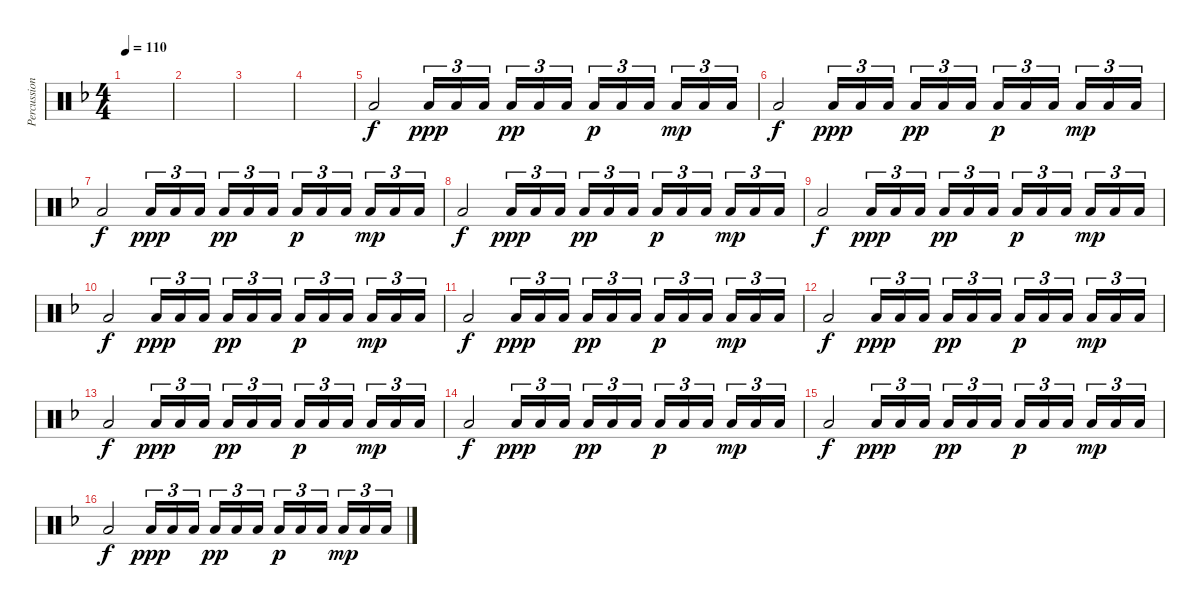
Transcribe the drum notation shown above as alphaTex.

\track ("Percussion" "Percussion") {instrument percussion}
\staff {score}
\articulation defaults
\ts (4 4)
\tempo 110
\clef neutral
\ks dminor
|
|
|
|
"Low Floor Tom (hit)".2 "Low Floor Tom (hit)".16{tu (3 2) dy ppp} "Low Floor Tom (hit)".16{tu (3 2)} "Low Floor Tom (hit)".16{tu (3 2)} "Low Floor Tom (hit)".16{tu (3 2) dy pp} "Low Floor Tom (hit)".16{tu (3 2)} "Low Floor Tom (hit)".16{tu (3 2)} "Low Floor Tom (hit)".16{tu (3 2) dy p} "Low Floor Tom (hit)".16{tu (3 2)} "Low Floor Tom (hit)".16{tu (3 2)} "Low Floor Tom (hit)".16{tu (3 2) dy mp} "Low Floor Tom (hit)".16{tu (3 2)} "Low Floor Tom (hit)".16{tu (3 2)} |
"Low Floor Tom (hit)".2{dy f} "Low Floor Tom (hit)".16{tu (3 2) dy ppp} "Low Floor Tom (hit)".16{tu (3 2)} "Low Floor Tom (hit)".16{tu (3 2)} "Low Floor Tom (hit)".16{tu (3 2) dy pp} "Low Floor Tom (hit)".16{tu (3 2)} "Low Floor Tom (hit)".16{tu (3 2)} "Low Floor Tom (hit)".16{tu (3 2) dy p} "Low Floor Tom (hit)".16{tu (3 2)} "Low Floor Tom (hit)".16{tu (3 2)} "Low Floor Tom (hit)".16{tu (3 2) dy mp} "Low Floor Tom (hit)".16{tu (3 2)} "Low Floor Tom (hit)".16{tu (3 2)} |
"Low Floor Tom (hit)".2{dy f} "Low Floor Tom (hit)".16{tu (3 2) dy ppp} "Low Floor Tom (hit)".16{tu (3 2)} "Low Floor Tom (hit)".16{tu (3 2)} "Low Floor Tom (hit)".16{tu (3 2) dy pp} "Low Floor Tom (hit)".16{tu (3 2)} "Low Floor Tom (hit)".16{tu (3 2)} "Low Floor Tom (hit)".16{tu (3 2) dy p} "Low Floor Tom (hit)".16{tu (3 2)} "Low Floor Tom (hit)".16{tu (3 2)} "Low Floor Tom (hit)".16{tu (3 2) dy mp} "Low Floor Tom (hit)".16{tu (3 2)} "Low Floor Tom (hit)".16{tu (3 2)} |
"Low Floor Tom (hit)".2{dy f} "Low Floor Tom (hit)".16{tu (3 2) dy ppp} "Low Floor Tom (hit)".16{tu (3 2)} "Low Floor Tom (hit)".16{tu (3 2)} "Low Floor Tom (hit)".16{tu (3 2) dy pp} "Low Floor Tom (hit)".16{tu (3 2)} "Low Floor Tom (hit)".16{tu (3 2)} "Low Floor Tom (hit)".16{tu (3 2) dy p} "Low Floor Tom (hit)".16{tu (3 2)} "Low Floor Tom (hit)".16{tu (3 2)} "Low Floor Tom (hit)".16{tu (3 2) dy mp} "Low Floor Tom (hit)".16{tu (3 2)} "Low Floor Tom (hit)".16{tu (3 2)} |
"Low Floor Tom (hit)".2{dy f} "Low Floor Tom (hit)".16{tu (3 2) dy ppp} "Low Floor Tom (hit)".16{tu (3 2)} "Low Floor Tom (hit)".16{tu (3 2)} "Low Floor Tom (hit)".16{tu (3 2) dy pp} "Low Floor Tom (hit)".16{tu (3 2)} "Low Floor Tom (hit)".16{tu (3 2)} "Low Floor Tom (hit)".16{tu (3 2) dy p} "Low Floor Tom (hit)".16{tu (3 2)} "Low Floor Tom (hit)".16{tu (3 2)} "Low Floor Tom (hit)".16{tu (3 2) dy mp} "Low Floor Tom (hit)".16{tu (3 2)} "Low Floor Tom (hit)".16{tu (3 2)} |
"Low Floor Tom (hit)".2{dy f} "Low Floor Tom (hit)".16{tu (3 2) dy ppp} "Low Floor Tom (hit)".16{tu (3 2)} "Low Floor Tom (hit)".16{tu (3 2)} "Low Floor Tom (hit)".16{tu (3 2) dy pp} "Low Floor Tom (hit)".16{tu (3 2)} "Low Floor Tom (hit)".16{tu (3 2)} "Low Floor Tom (hit)".16{tu (3 2) dy p} "Low Floor Tom (hit)".16{tu (3 2)} "Low Floor Tom (hit)".16{tu (3 2)} "Low Floor Tom (hit)".16{tu (3 2) dy mp} "Low Floor Tom (hit)".16{tu (3 2)} "Low Floor Tom (hit)".16{tu (3 2)} |
"Low Floor Tom (hit)".2{dy f} "Low Floor Tom (hit)".16{tu (3 2) dy ppp} "Low Floor Tom (hit)".16{tu (3 2)} "Low Floor Tom (hit)".16{tu (3 2)} "Low Floor Tom (hit)".16{tu (3 2) dy pp} "Low Floor Tom (hit)".16{tu (3 2)} "Low Floor Tom (hit)".16{tu (3 2)} "Low Floor Tom (hit)".16{tu (3 2) dy p} "Low Floor Tom (hit)".16{tu (3 2)} "Low Floor Tom (hit)".16{tu (3 2)} "Low Floor Tom (hit)".16{tu (3 2) dy mp} "Low Floor Tom (hit)".16{tu (3 2)} "Low Floor Tom (hit)".16{tu (3 2)} |
"Low Floor Tom (hit)".2{dy f} "Low Floor Tom (hit)".16{tu (3 2) dy ppp} "Low Floor Tom (hit)".16{tu (3 2)} "Low Floor Tom (hit)".16{tu (3 2)} "Low Floor Tom (hit)".16{tu (3 2) dy pp} "Low Floor Tom (hit)".16{tu (3 2)} "Low Floor Tom (hit)".16{tu (3 2)} "Low Floor Tom (hit)".16{tu (3 2) dy p} "Low Floor Tom (hit)".16{tu (3 2)} "Low Floor Tom (hit)".16{tu (3 2)} "Low Floor Tom (hit)".16{tu (3 2) dy mp} "Low Floor Tom (hit)".16{tu (3 2)} "Low Floor Tom (hit)".16{tu (3 2)} |
"Low Floor Tom (hit)".2{dy f} "Low Floor Tom (hit)".16{tu (3 2) dy ppp} "Low Floor Tom (hit)".16{tu (3 2)} "Low Floor Tom (hit)".16{tu (3 2)} "Low Floor Tom (hit)".16{tu (3 2) dy pp} "Low Floor Tom (hit)".16{tu (3 2)} "Low Floor Tom (hit)".16{tu (3 2)} "Low Floor Tom (hit)".16{tu (3 2) dy p} "Low Floor Tom (hit)".16{tu (3 2)} "Low Floor Tom (hit)".16{tu (3 2)} "Low Floor Tom (hit)".16{tu (3 2) dy mp} "Low Floor Tom (hit)".16{tu (3 2)} "Low Floor Tom (hit)".16{tu (3 2)} |
"Low Floor Tom (hit)".2{dy f} "Low Floor Tom (hit)".16{tu (3 2) dy ppp} "Low Floor Tom (hit)".16{tu (3 2)} "Low Floor Tom (hit)".16{tu (3 2)} "Low Floor Tom (hit)".16{tu (3 2) dy pp} "Low Floor Tom (hit)".16{tu (3 2)} "Low Floor Tom (hit)".16{tu (3 2)} "Low Floor Tom (hit)".16{tu (3 2) dy p} "Low Floor Tom (hit)".16{tu (3 2)} "Low Floor Tom (hit)".16{tu (3 2)} "Low Floor Tom (hit)".16{tu (3 2) dy mp} "Low Floor Tom (hit)".16{tu (3 2)} "Low Floor Tom (hit)".16{tu (3 2)} |
"Low Floor Tom (hit)".2{dy f} "Low Floor Tom (hit)".16{tu (3 2) dy ppp} "Low Floor Tom (hit)".16{tu (3 2)} "Low Floor Tom (hit)".16{tu (3 2)} "Low Floor Tom (hit)".16{tu (3 2) dy pp} "Low Floor Tom (hit)".16{tu (3 2)} "Low Floor Tom (hit)".16{tu (3 2)} "Low Floor Tom (hit)".16{tu (3 2) dy p} "Low Floor Tom (hit)".16{tu (3 2)} "Low Floor Tom (hit)".16{tu (3 2)} "Low Floor Tom (hit)".16{tu (3 2) dy mp} "Low Floor Tom (hit)".16{tu (3 2)} "Low Floor Tom (hit)".16{tu (3 2)} |
"Low Floor Tom (hit)".2{dy f} "Low Floor Tom (hit)".16{tu (3 2) dy ppp} "Low Floor Tom (hit)".16{tu (3 2)} "Low Floor Tom (hit)".16{tu (3 2)} "Low Floor Tom (hit)".16{tu (3 2) dy pp} "Low Floor Tom (hit)".16{tu (3 2)} "Low Floor Tom (hit)".16{tu (3 2)} "Low Floor Tom (hit)".16{tu (3 2) dy p} "Low Floor Tom (hit)".16{tu (3 2)} "Low Floor Tom (hit)".16{tu (3 2)} "Low Floor Tom (hit)".16{tu (3 2) dy mp} "Low Floor Tom (hit)".16{tu (3 2)} "Low Floor Tom (hit)".16{tu (3 2)}
